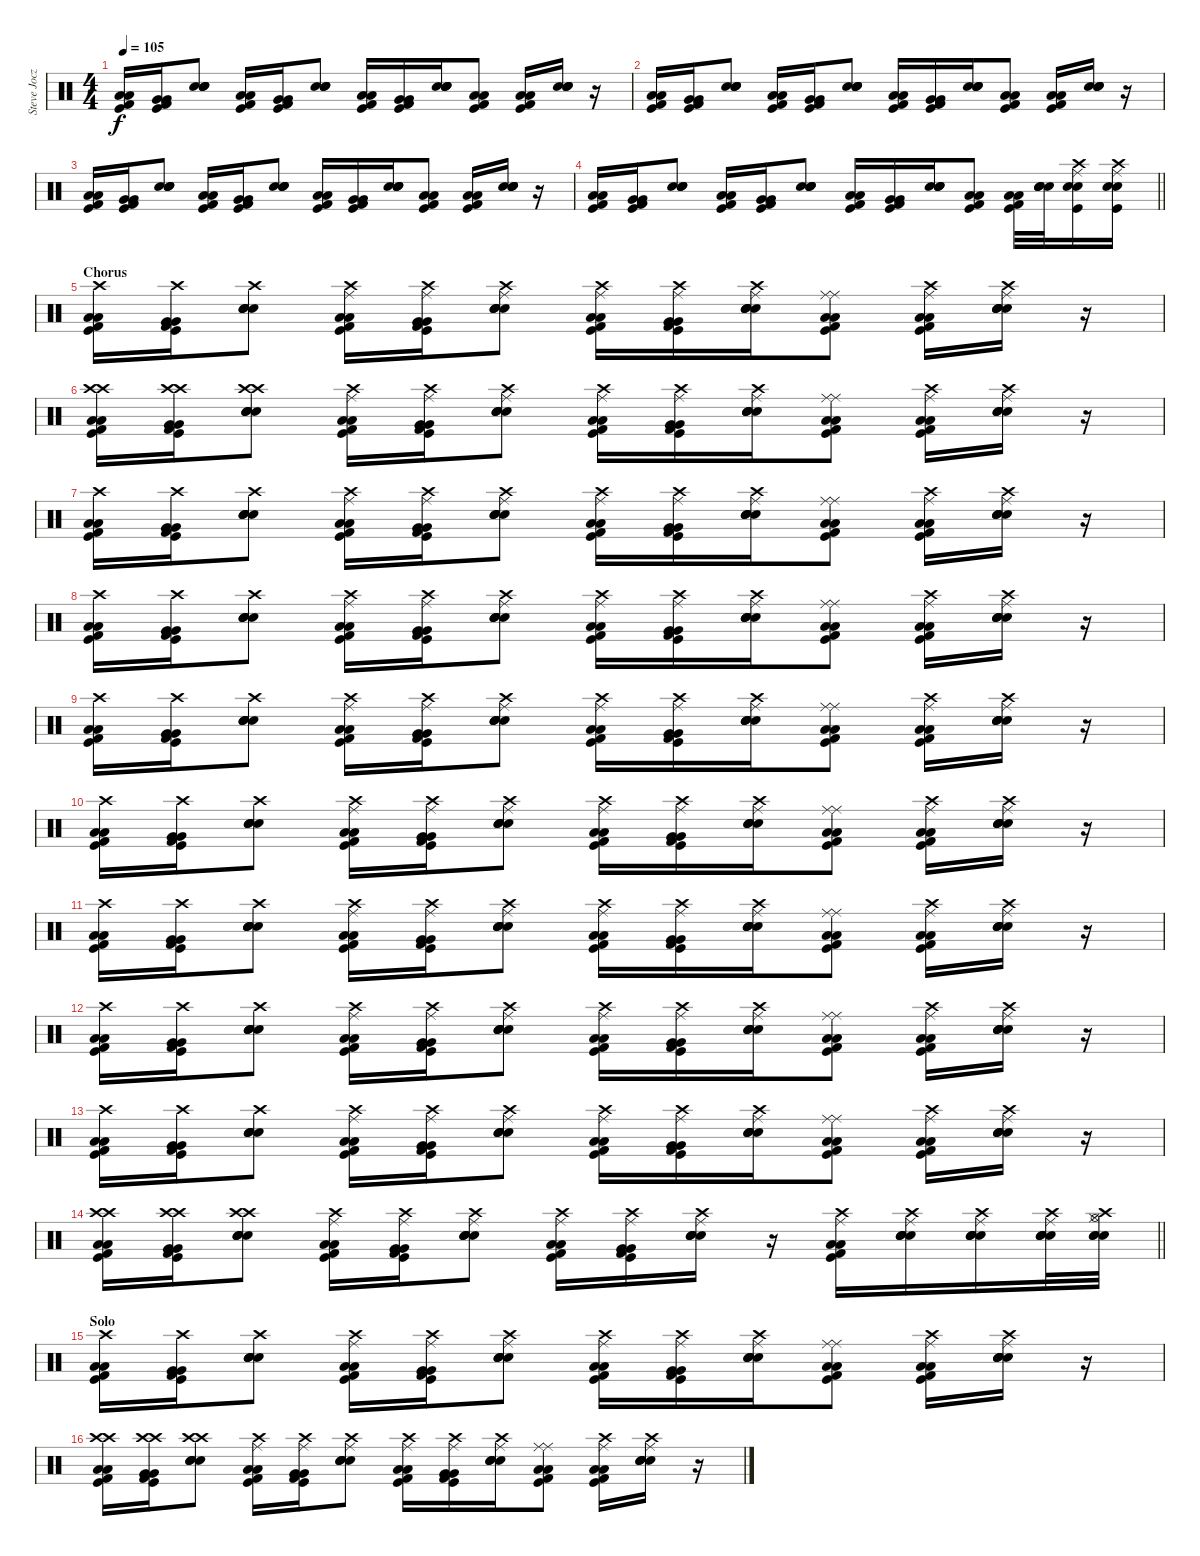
\track ("Steve Jocz" "Steve Jocz") {instrument percussion}
\staff {score}
\articulation defaults
\ts (4 4)
\tempo 105
\clef neutral
\ks c
("Low Floor Tom (hit)" "Low Floor Tom (hit)" "Kick (hit)" "Kick (hit) 2").16{dy f} ("Very Low Tom (hit)" "Very Low Tom (hit)" "Kick (hit)" "Kick (hit) 2").16 ("Snare (hit) 2" "Snare (hit) 2" "Electric Snare (hit)" "Electric Snare (hit)").8 ("Low Floor Tom (hit)" "Low Floor Tom (hit)" "Kick (hit)" "Kick (hit) 2").16 ("Very Low Tom (hit)" "Very Low Tom (hit)" "Kick (hit)" "Kick (hit) 2").16 ("Snare (hit) 2" "Snare (hit) 2" "Electric Snare (hit)" "Electric Snare (hit)").8 ("Low Floor Tom (hit)" "Low Floor Tom (hit)" "Kick (hit)" "Kick (hit) 2").16 ("Very Low Tom (hit)" "Very Low Tom (hit)" "Kick (hit)" "Kick (hit) 2").16 ("Snare (hit) 2" "Snare (hit) 2" "Electric Snare (hit)" "Electric Snare (hit)").16 ("Low Floor Tom (hit)" "Low Floor Tom (hit)" "Kick (hit)" "Kick (hit) 2").8 ("Low Floor Tom (hit)" "Low Floor Tom (hit)" "Kick (hit)" "Kick (hit) 2").16 ("Snare (hit) 2" "Snare (hit) 2" "Electric Snare (hit)" "Electric Snare (hit)").16 r.16 |
("Low Floor Tom (hit)" "Low Floor Tom (hit)" "Kick (hit)" "Kick (hit) 2").16 ("Very Low Tom (hit)" "Very Low Tom (hit)" "Kick (hit)" "Kick (hit) 2").16 ("Snare (hit) 2" "Snare (hit) 2" "Electric Snare (hit)" "Electric Snare (hit)").8 ("Low Floor Tom (hit)" "Low Floor Tom (hit)" "Kick (hit)" "Kick (hit) 2").16 ("Very Low Tom (hit)" "Very Low Tom (hit)" "Kick (hit)" "Kick (hit) 2").16 ("Snare (hit) 2" "Snare (hit) 2" "Electric Snare (hit)" "Electric Snare (hit)").8 ("Low Floor Tom (hit)" "Low Floor Tom (hit)" "Kick (hit)" "Kick (hit) 2").16 ("Very Low Tom (hit)" "Very Low Tom (hit)" "Kick (hit)" "Kick (hit) 2").16 ("Snare (hit) 2" "Snare (hit) 2" "Electric Snare (hit)" "Electric Snare (hit)").16 ("Low Floor Tom (hit)" "Low Floor Tom (hit)" "Kick (hit)" "Kick (hit) 2").8 ("Low Floor Tom (hit)" "Low Floor Tom (hit)" "Kick (hit)" "Kick (hit) 2").16 ("Snare (hit) 2" "Snare (hit) 2" "Electric Snare (hit)" "Electric Snare (hit)").16 r.16 |
("Low Floor Tom (hit)" "Low Floor Tom (hit)" "Kick (hit)" "Kick (hit) 2").16 ("Very Low Tom (hit)" "Very Low Tom (hit)" "Kick (hit)" "Kick (hit) 2").16 ("Snare (hit) 2" "Snare (hit) 2" "Electric Snare (hit)" "Electric Snare (hit)").8 ("Low Floor Tom (hit)" "Low Floor Tom (hit)" "Kick (hit)" "Kick (hit) 2").16 ("Very Low Tom (hit)" "Very Low Tom (hit)" "Kick (hit)" "Kick (hit) 2").16 ("Snare (hit) 2" "Snare (hit) 2" "Electric Snare (hit)" "Electric Snare (hit)").8 ("Low Floor Tom (hit)" "Low Floor Tom (hit)" "Kick (hit)" "Kick (hit) 2").16 ("Very Low Tom (hit)" "Very Low Tom (hit)" "Kick (hit)" "Kick (hit) 2").16 ("Snare (hit) 2" "Snare (hit) 2" "Electric Snare (hit)" "Electric Snare (hit)").16 ("Low Floor Tom (hit)" "Low Floor Tom (hit)" "Kick (hit)" "Kick (hit) 2").8 ("Low Floor Tom (hit)" "Low Floor Tom (hit)" "Kick (hit)" "Kick (hit) 2").16 ("Snare (hit) 2" "Snare (hit) 2" "Electric Snare (hit)" "Electric Snare (hit)").16 r.16 |
\barLineRight lightlight
("Low Floor Tom (hit)" "Low Floor Tom (hit)" "Kick (hit)" "Kick (hit) 2").16 ("Very Low Tom (hit)" "Very Low Tom (hit)" "Kick (hit)" "Kick (hit) 2").16 ("Snare (hit) 2" "Snare (hit) 2" "Electric Snare (hit)" "Electric Snare (hit)").8 ("Low Floor Tom (hit)" "Low Floor Tom (hit)" "Kick (hit)" "Kick (hit) 2").16 ("Very Low Tom (hit)" "Very Low Tom (hit)" "Kick (hit)" "Kick (hit) 2").16 ("Snare (hit) 2" "Snare (hit) 2" "Electric Snare (hit)" "Electric Snare (hit)").8 ("Low Floor Tom (hit)" "Low Floor Tom (hit)" "Kick (hit)" "Kick (hit) 2").16 ("Very Low Tom (hit)" "Very Low Tom (hit)" "Kick (hit)" "Kick (hit) 2").16 ("Snare (hit) 2" "Snare (hit) 2" "Electric Snare (hit)" "Electric Snare (hit)").16 ("Low Floor Tom (hit)" "Low Floor Tom (hit)" "Kick (hit)" "Kick (hit) 2").8 ("Low Floor Tom (hit)" "Low Floor Tom (hit)" "Kick (hit)" "Kick (hit) 2").32 ("Snare (hit) 2" "Snare (hit) 2" "Electric Snare (hit)" "Electric Snare (hit)").32 ("Snare (hit) 2" "Kick (hit)" "Electric Snare (hit)" "Crash high (hit)" "Ride (middle)").16 ("Snare (hit) 2" "Kick (hit)" "Electric Snare (hit)" "Crash high (hit)" "Ride (middle)").16 |
\section ("" "Chorus")
("Low Floor Tom (hit)" "Crash high (hit)" "Low Floor Tom (hit)" "Kick (hit)" "Kick (hit) 2").16 ("Very Low Tom (hit)" "Crash high (hit)" "Very Low Tom (hit)" "Kick (hit)" "Kick (hit) 2").16 ("Snare (hit) 2" "Crash high (hit)" "Snare (hit) 2" "Electric Snare (hit)" "Electric Snare (hit)").8 ("Low Floor Tom (hit)" "Ride (middle)" "Low Floor Tom (hit)" "Kick (hit)" "Crash high (hit)" "Kick (hit) 2").16 ("Very Low Tom (hit)" "Ride (middle)" "Very Low Tom (hit)" "Kick (hit)" "Crash high (hit)" "Kick (hit) 2").16 ("Snare (hit) 2" "Ride (middle)" "Snare (hit) 2" "Electric Snare (hit)" "Crash high (hit)" "Electric Snare (hit)").8 ("Low Floor Tom (hit)" "Ride (middle)" "Low Floor Tom (hit)" "Kick (hit)" "Crash high (hit)" "Kick (hit) 2").16 ("Very Low Tom (hit)" "Ride (middle)" "Very Low Tom (hit)" "Kick (hit)" "Crash high (hit)" "Kick (hit) 2").16 ("Snare (hit) 2" "Ride (middle)" "Snare (hit) 2" "Electric Snare (hit)" "Crash high (hit)" "Electric Snare (hit)").16 ("Low Floor Tom (hit)" "Ride (middle)" "Low Floor Tom (hit)" "Kick (hit)" "Ride (middle)" "Kick (hit) 2").8 ("Low Floor Tom (hit)" "Ride (middle)" "Low Floor Tom (hit)" "Kick (hit)" "Crash high (hit)" "Kick (hit) 2").16 ("Snare (hit) 2" "Ride (middle)" "Snare (hit) 2" "Electric Snare (hit)" "Crash high (hit)" "Electric Snare (hit)").16 r.16 |
("Low Floor Tom (hit)" "Crash high (hit)" "Low Floor Tom (hit)" "Kick (hit)" "Crash high (hit)" "Kick (hit) 2").16 ("Very Low Tom (hit)" "Crash high (hit)" "Very Low Tom (hit)" "Kick (hit)" "Crash high (hit)" "Kick (hit) 2").16 ("Snare (hit) 2" "Crash high (hit)" "Snare (hit) 2" "Electric Snare (hit)" "Crash high (hit)" "Electric Snare (hit)").8 ("Low Floor Tom (hit)" "Ride (middle)" "Low Floor Tom (hit)" "Kick (hit)" "Crash high (hit)" "Kick (hit) 2").16 ("Very Low Tom (hit)" "Ride (middle)" "Very Low Tom (hit)" "Kick (hit)" "Crash high (hit)" "Kick (hit) 2").16 ("Snare (hit) 2" "Ride (middle)" "Snare (hit) 2" "Electric Snare (hit)" "Crash high (hit)" "Electric Snare (hit)").8 ("Low Floor Tom (hit)" "Ride (middle)" "Low Floor Tom (hit)" "Kick (hit)" "Crash high (hit)" "Kick (hit) 2").16 ("Very Low Tom (hit)" "Ride (middle)" "Very Low Tom (hit)" "Kick (hit)" "Crash high (hit)" "Kick (hit) 2").16 ("Snare (hit) 2" "Ride (middle)" "Snare (hit) 2" "Electric Snare (hit)" "Crash high (hit)" "Electric Snare (hit)").16 ("Low Floor Tom (hit)" "Ride (middle)" "Low Floor Tom (hit)" "Kick (hit)" "Ride (middle)" "Kick (hit) 2").8 ("Low Floor Tom (hit)" "Ride (middle)" "Low Floor Tom (hit)" "Kick (hit)" "Crash high (hit)" "Kick (hit) 2").16 ("Snare (hit) 2" "Ride (middle)" "Snare (hit) 2" "Electric Snare (hit)" "Crash high (hit)" "Electric Snare (hit)").16 r.16 |
("Low Floor Tom (hit)" "Crash high (hit)" "Low Floor Tom (hit)" "Kick (hit)" "Kick (hit) 2").16 ("Very Low Tom (hit)" "Crash high (hit)" "Very Low Tom (hit)" "Kick (hit)" "Kick (hit) 2").16 ("Snare (hit) 2" "Crash high (hit)" "Snare (hit) 2" "Electric Snare (hit)" "Electric Snare (hit)").8 ("Low Floor Tom (hit)" "Ride (middle)" "Low Floor Tom (hit)" "Kick (hit)" "Crash high (hit)" "Kick (hit) 2").16 ("Very Low Tom (hit)" "Ride (middle)" "Very Low Tom (hit)" "Kick (hit)" "Crash high (hit)" "Kick (hit) 2").16 ("Snare (hit) 2" "Ride (middle)" "Snare (hit) 2" "Electric Snare (hit)" "Crash high (hit)" "Electric Snare (hit)").8 ("Low Floor Tom (hit)" "Ride (middle)" "Low Floor Tom (hit)" "Kick (hit)" "Crash high (hit)" "Kick (hit) 2").16 ("Very Low Tom (hit)" "Ride (middle)" "Very Low Tom (hit)" "Kick (hit)" "Crash high (hit)" "Kick (hit) 2").16 ("Snare (hit) 2" "Ride (middle)" "Snare (hit) 2" "Electric Snare (hit)" "Crash high (hit)" "Electric Snare (hit)").16 ("Low Floor Tom (hit)" "Ride (middle)" "Low Floor Tom (hit)" "Kick (hit)" "Ride (middle)" "Kick (hit) 2").8 ("Low Floor Tom (hit)" "Ride (middle)" "Low Floor Tom (hit)" "Kick (hit)" "Crash high (hit)" "Kick (hit) 2").16 ("Snare (hit) 2" "Ride (middle)" "Snare (hit) 2" "Electric Snare (hit)" "Crash high (hit)" "Electric Snare (hit)").16 r.16 |
("Low Floor Tom (hit)" "Crash high (hit)" "Low Floor Tom (hit)" "Kick (hit)" "Kick (hit) 2").16 ("Very Low Tom (hit)" "Crash high (hit)" "Very Low Tom (hit)" "Kick (hit)" "Kick (hit) 2").16 ("Snare (hit) 2" "Crash high (hit)" "Snare (hit) 2" "Electric Snare (hit)" "Electric Snare (hit)").8 ("Low Floor Tom (hit)" "Ride (middle)" "Low Floor Tom (hit)" "Kick (hit)" "Crash high (hit)" "Kick (hit) 2").16 ("Very Low Tom (hit)" "Ride (middle)" "Very Low Tom (hit)" "Kick (hit)" "Crash high (hit)" "Kick (hit) 2").16 ("Snare (hit) 2" "Ride (middle)" "Snare (hit) 2" "Electric Snare (hit)" "Crash high (hit)" "Electric Snare (hit)").8 ("Low Floor Tom (hit)" "Ride (middle)" "Low Floor Tom (hit)" "Kick (hit)" "Crash high (hit)" "Kick (hit) 2").16 ("Very Low Tom (hit)" "Ride (middle)" "Very Low Tom (hit)" "Kick (hit)" "Crash high (hit)" "Kick (hit) 2").16 ("Snare (hit) 2" "Ride (middle)" "Snare (hit) 2" "Electric Snare (hit)" "Crash high (hit)" "Electric Snare (hit)").16 ("Low Floor Tom (hit)" "Ride (middle)" "Low Floor Tom (hit)" "Kick (hit)" "Ride (middle)" "Kick (hit) 2").8 ("Low Floor Tom (hit)" "Ride (middle)" "Low Floor Tom (hit)" "Kick (hit)" "Crash high (hit)" "Kick (hit) 2").16 ("Snare (hit) 2" "Ride (middle)" "Snare (hit) 2" "Electric Snare (hit)" "Crash high (hit)" "Electric Snare (hit)").16 r.16 |
("Low Floor Tom (hit)" "Crash high (hit)" "Low Floor Tom (hit)" "Kick (hit)" "Kick (hit) 2").16 ("Very Low Tom (hit)" "Crash high (hit)" "Very Low Tom (hit)" "Kick (hit)" "Kick (hit) 2").16 ("Snare (hit) 2" "Crash high (hit)" "Snare (hit) 2" "Electric Snare (hit)" "Electric Snare (hit)").8 ("Low Floor Tom (hit)" "Ride (middle)" "Low Floor Tom (hit)" "Kick (hit)" "Crash high (hit)" "Kick (hit) 2").16 ("Very Low Tom (hit)" "Ride (middle)" "Very Low Tom (hit)" "Kick (hit)" "Crash high (hit)" "Kick (hit) 2").16 ("Snare (hit) 2" "Ride (middle)" "Snare (hit) 2" "Electric Snare (hit)" "Crash high (hit)" "Electric Snare (hit)").8 ("Low Floor Tom (hit)" "Ride (middle)" "Low Floor Tom (hit)" "Kick (hit)" "Crash high (hit)" "Kick (hit) 2").16 ("Very Low Tom (hit)" "Ride (middle)" "Very Low Tom (hit)" "Kick (hit)" "Crash high (hit)" "Kick (hit) 2").16 ("Snare (hit) 2" "Ride (middle)" "Snare (hit) 2" "Electric Snare (hit)" "Crash high (hit)" "Electric Snare (hit)").16 ("Low Floor Tom (hit)" "Ride (middle)" "Low Floor Tom (hit)" "Kick (hit)" "Ride (middle)" "Kick (hit) 2").8 ("Low Floor Tom (hit)" "Ride (middle)" "Low Floor Tom (hit)" "Kick (hit)" "Crash high (hit)" "Kick (hit) 2").16 ("Snare (hit) 2" "Ride (middle)" "Snare (hit) 2" "Electric Snare (hit)" "Crash high (hit)" "Electric Snare (hit)").16 r.16 |
("Low Floor Tom (hit)" "Crash high (hit)" "Low Floor Tom (hit)" "Kick (hit)" "Kick (hit) 2").16 ("Very Low Tom (hit)" "Crash high (hit)" "Very Low Tom (hit)" "Kick (hit)" "Kick (hit) 2").16 ("Snare (hit) 2" "Crash high (hit)" "Snare (hit) 2" "Electric Snare (hit)" "Electric Snare (hit)").8 ("Low Floor Tom (hit)" "Ride (middle)" "Low Floor Tom (hit)" "Kick (hit)" "Crash high (hit)" "Kick (hit) 2").16 ("Very Low Tom (hit)" "Ride (middle)" "Very Low Tom (hit)" "Kick (hit)" "Crash high (hit)" "Kick (hit) 2").16 ("Snare (hit) 2" "Ride (middle)" "Snare (hit) 2" "Electric Snare (hit)" "Crash high (hit)" "Electric Snare (hit)").8 ("Low Floor Tom (hit)" "Ride (middle)" "Low Floor Tom (hit)" "Kick (hit)" "Crash high (hit)" "Kick (hit) 2").16 ("Very Low Tom (hit)" "Ride (middle)" "Very Low Tom (hit)" "Kick (hit)" "Crash high (hit)" "Kick (hit) 2").16 ("Snare (hit) 2" "Ride (middle)" "Snare (hit) 2" "Electric Snare (hit)" "Crash high (hit)" "Electric Snare (hit)").16 ("Low Floor Tom (hit)" "Ride (middle)" "Low Floor Tom (hit)" "Kick (hit)" "Ride (middle)" "Kick (hit) 2").8 ("Low Floor Tom (hit)" "Ride (middle)" "Low Floor Tom (hit)" "Kick (hit)" "Crash high (hit)" "Kick (hit) 2").16 ("Snare (hit) 2" "Ride (middle)" "Snare (hit) 2" "Electric Snare (hit)" "Crash high (hit)" "Electric Snare (hit)").16 r.16 |
("Low Floor Tom (hit)" "Crash high (hit)" "Low Floor Tom (hit)" "Kick (hit)" "Kick (hit) 2").16 ("Very Low Tom (hit)" "Crash high (hit)" "Very Low Tom (hit)" "Kick (hit)" "Kick (hit) 2").16 ("Snare (hit) 2" "Crash high (hit)" "Snare (hit) 2" "Electric Snare (hit)" "Electric Snare (hit)").8 ("Low Floor Tom (hit)" "Ride (middle)" "Low Floor Tom (hit)" "Kick (hit)" "Crash high (hit)" "Kick (hit) 2").16 ("Very Low Tom (hit)" "Ride (middle)" "Very Low Tom (hit)" "Kick (hit)" "Crash high (hit)" "Kick (hit) 2").16 ("Snare (hit) 2" "Ride (middle)" "Snare (hit) 2" "Electric Snare (hit)" "Crash high (hit)" "Electric Snare (hit)").8 ("Low Floor Tom (hit)" "Ride (middle)" "Low Floor Tom (hit)" "Kick (hit)" "Crash high (hit)" "Kick (hit) 2").16 ("Very Low Tom (hit)" "Ride (middle)" "Very Low Tom (hit)" "Kick (hit)" "Crash high (hit)" "Kick (hit) 2").16 ("Snare (hit) 2" "Ride (middle)" "Snare (hit) 2" "Electric Snare (hit)" "Crash high (hit)" "Electric Snare (hit)").16 ("Low Floor Tom (hit)" "Ride (middle)" "Low Floor Tom (hit)" "Kick (hit)" "Ride (middle)" "Kick (hit) 2").8 ("Low Floor Tom (hit)" "Ride (middle)" "Low Floor Tom (hit)" "Kick (hit)" "Crash high (hit)" "Kick (hit) 2").16 ("Snare (hit) 2" "Ride (middle)" "Snare (hit) 2" "Electric Snare (hit)" "Crash high (hit)" "Electric Snare (hit)").16 r.16 |
("Low Floor Tom (hit)" "Crash high (hit)" "Low Floor Tom (hit)" "Kick (hit)" "Kick (hit) 2").16 ("Very Low Tom (hit)" "Crash high (hit)" "Very Low Tom (hit)" "Kick (hit)" "Kick (hit) 2").16 ("Snare (hit) 2" "Crash high (hit)" "Snare (hit) 2" "Electric Snare (hit)" "Electric Snare (hit)").8 ("Low Floor Tom (hit)" "Ride (middle)" "Low Floor Tom (hit)" "Kick (hit)" "Crash high (hit)" "Kick (hit) 2").16 ("Very Low Tom (hit)" "Ride (middle)" "Very Low Tom (hit)" "Kick (hit)" "Crash high (hit)" "Kick (hit) 2").16 ("Snare (hit) 2" "Ride (middle)" "Snare (hit) 2" "Electric Snare (hit)" "Crash high (hit)" "Electric Snare (hit)").8 ("Low Floor Tom (hit)" "Ride (middle)" "Low Floor Tom (hit)" "Kick (hit)" "Crash high (hit)" "Kick (hit) 2").16 ("Very Low Tom (hit)" "Ride (middle)" "Very Low Tom (hit)" "Kick (hit)" "Crash high (hit)" "Kick (hit) 2").16 ("Snare (hit) 2" "Ride (middle)" "Snare (hit) 2" "Electric Snare (hit)" "Crash high (hit)" "Electric Snare (hit)").16 ("Low Floor Tom (hit)" "Ride (middle)" "Low Floor Tom (hit)" "Kick (hit)" "Ride (middle)" "Kick (hit) 2").8 ("Low Floor Tom (hit)" "Ride (middle)" "Low Floor Tom (hit)" "Kick (hit)" "Crash high (hit)" "Kick (hit) 2").16 ("Snare (hit) 2" "Ride (middle)" "Snare (hit) 2" "Electric Snare (hit)" "Crash high (hit)" "Electric Snare (hit)").16 r.16 |
("Low Floor Tom (hit)" "Crash high (hit)" "Low Floor Tom (hit)" "Kick (hit)" "Kick (hit) 2").16 ("Very Low Tom (hit)" "Crash high (hit)" "Very Low Tom (hit)" "Kick (hit)" "Kick (hit) 2").16 ("Snare (hit) 2" "Crash high (hit)" "Snare (hit) 2" "Electric Snare (hit)" "Electric Snare (hit)").8 ("Low Floor Tom (hit)" "Ride (middle)" "Low Floor Tom (hit)" "Kick (hit)" "Crash high (hit)" "Kick (hit) 2").16 ("Very Low Tom (hit)" "Ride (middle)" "Very Low Tom (hit)" "Kick (hit)" "Crash high (hit)" "Kick (hit) 2").16 ("Snare (hit) 2" "Ride (middle)" "Snare (hit) 2" "Electric Snare (hit)" "Crash high (hit)" "Electric Snare (hit)").8 ("Low Floor Tom (hit)" "Ride (middle)" "Low Floor Tom (hit)" "Kick (hit)" "Crash high (hit)" "Kick (hit) 2").16 ("Very Low Tom (hit)" "Ride (middle)" "Very Low Tom (hit)" "Kick (hit)" "Crash high (hit)" "Kick (hit) 2").16 ("Snare (hit) 2" "Ride (middle)" "Snare (hit) 2" "Electric Snare (hit)" "Crash high (hit)" "Electric Snare (hit)").16 ("Low Floor Tom (hit)" "Ride (middle)" "Low Floor Tom (hit)" "Kick (hit)" "Ride (middle)" "Kick (hit) 2").8 ("Low Floor Tom (hit)" "Ride (middle)" "Low Floor Tom (hit)" "Kick (hit)" "Crash high (hit)" "Kick (hit) 2").16 ("Snare (hit) 2" "Ride (middle)" "Snare (hit) 2" "Electric Snare (hit)" "Crash high (hit)" "Electric Snare (hit)").16 r.16 |
\barLineRight lightlight
("Low Floor Tom (hit)" "Crash high (hit)" "Low Floor Tom (hit)" "Kick (hit)" "Crash high (hit)" "Kick (hit) 2").16 ("Very Low Tom (hit)" "Crash high (hit)" "Very Low Tom (hit)" "Kick (hit)" "Crash high (hit)" "Kick (hit) 2").16 ("Snare (hit) 2" "Crash high (hit)" "Snare (hit) 2" "Electric Snare (hit)" "Crash high (hit)" "Electric Snare (hit)").8 ("Low Floor Tom (hit)" "Ride (middle)" "Low Floor Tom (hit)" "Kick (hit)" "Crash high (hit)" "Kick (hit) 2").16 ("Very Low Tom (hit)" "Ride (middle)" "Very Low Tom (hit)" "Kick (hit)" "Crash high (hit)" "Kick (hit) 2").16 ("Snare (hit) 2" "Ride (middle)" "Snare (hit) 2" "Electric Snare (hit)" "Crash high (hit)" "Electric Snare (hit)").8 ("Low Floor Tom (hit)" "Ride (middle)" "Low Floor Tom (hit)" "Kick (hit)" "Crash high (hit)" "Kick (hit) 2").16 ("Very Low Tom (hit)" "Ride (middle)" "Very Low Tom (hit)" "Kick (hit)" "Crash high (hit)" "Kick (hit) 2").16 ("Snare (hit) 2" "Ride (middle)" "Snare (hit) 2" "Electric Snare (hit)" "Crash high (hit)" "Electric Snare (hit)").16 r.16 ("Low Floor Tom (hit)" "Ride (middle)" "Low Floor Tom (hit)" "Kick (hit)" "Crash high (hit)" "Kick (hit) 2").16 ("Snare (hit) 2" "Ride (middle)" "Snare (hit) 2" "Electric Snare (hit)" "Crash high (hit)" "Electric Snare (hit)").16 ("Snare (hit) 2" "Ride (middle)" "Snare (hit) 2" "Electric Snare (hit)" "Crash high (hit)" "Electric Snare (hit)").16 ("Snare (hit) 2" "Ride (middle)" "Snare (hit) 2" "Electric Snare (hit)" "Crash high (hit)" "Electric Snare (hit)").32 ("Snare (hit) 2" "Snare (hit) 2" "Electric Snare (hit)" "Crash high (hit)" "Hi-Hat (open)" "Hi-Hat (closed)").32 |
\section ("" "Solo ")
("Low Floor Tom (hit)" "Crash high (hit)" "Low Floor Tom (hit)" "Kick (hit)" "Kick (hit) 2").16 ("Very Low Tom (hit)" "Crash high (hit)" "Very Low Tom (hit)" "Kick (hit)" "Kick (hit) 2").16 ("Snare (hit) 2" "Crash high (hit)" "Snare (hit) 2" "Electric Snare (hit)" "Electric Snare (hit)").8 ("Low Floor Tom (hit)" "Ride (middle)" "Low Floor Tom (hit)" "Kick (hit)" "Crash high (hit)" "Kick (hit) 2").16 ("Very Low Tom (hit)" "Ride (middle)" "Very Low Tom (hit)" "Kick (hit)" "Crash high (hit)" "Kick (hit) 2").16 ("Snare (hit) 2" "Ride (middle)" "Snare (hit) 2" "Electric Snare (hit)" "Crash high (hit)" "Electric Snare (hit)").8 ("Low Floor Tom (hit)" "Ride (middle)" "Low Floor Tom (hit)" "Kick (hit)" "Crash high (hit)" "Kick (hit) 2").16 ("Very Low Tom (hit)" "Ride (middle)" "Very Low Tom (hit)" "Kick (hit)" "Crash high (hit)" "Kick (hit) 2").16 ("Snare (hit) 2" "Ride (middle)" "Snare (hit) 2" "Electric Snare (hit)" "Crash high (hit)" "Electric Snare (hit)").16 ("Low Floor Tom (hit)" "Ride (middle)" "Low Floor Tom (hit)" "Kick (hit)" "Ride (middle)" "Kick (hit) 2").8 ("Low Floor Tom (hit)" "Ride (middle)" "Low Floor Tom (hit)" "Kick (hit)" "Crash high (hit)" "Kick (hit) 2").16 ("Snare (hit) 2" "Ride (middle)" "Snare (hit) 2" "Electric Snare (hit)" "Crash high (hit)" "Electric Snare (hit)").16 r.16 |
("Low Floor Tom (hit)" "Crash high (hit)" "Low Floor Tom (hit)" "Kick (hit)" "Crash high (hit)" "Kick (hit) 2").16 ("Very Low Tom (hit)" "Crash high (hit)" "Very Low Tom (hit)" "Kick (hit)" "Crash high (hit)" "Kick (hit) 2").16 ("Snare (hit) 2" "Crash high (hit)" "Snare (hit) 2" "Electric Snare (hit)" "Crash high (hit)" "Electric Snare (hit)").8 ("Low Floor Tom (hit)" "Ride (middle)" "Low Floor Tom (hit)" "Kick (hit)" "Crash high (hit)" "Kick (hit) 2").16 ("Very Low Tom (hit)" "Ride (middle)" "Very Low Tom (hit)" "Kick (hit)" "Crash high (hit)" "Kick (hit) 2").16 ("Snare (hit) 2" "Ride (middle)" "Snare (hit) 2" "Electric Snare (hit)" "Crash high (hit)" "Electric Snare (hit)").8 ("Low Floor Tom (hit)" "Ride (middle)" "Low Floor Tom (hit)" "Kick (hit)" "Crash high (hit)" "Kick (hit) 2").16 ("Very Low Tom (hit)" "Ride (middle)" "Very Low Tom (hit)" "Kick (hit)" "Crash high (hit)" "Kick (hit) 2").16 ("Snare (hit) 2" "Ride (middle)" "Snare (hit) 2" "Electric Snare (hit)" "Crash high (hit)" "Electric Snare (hit)").16 ("Low Floor Tom (hit)" "Ride (middle)" "Low Floor Tom (hit)" "Kick (hit)" "Ride (middle)" "Kick (hit) 2").8 ("Low Floor Tom (hit)" "Ride (middle)" "Low Floor Tom (hit)" "Kick (hit)" "Crash high (hit)" "Kick (hit) 2").16 ("Snare (hit) 2" "Ride (middle)" "Snare (hit) 2" "Electric Snare (hit)" "Crash high (hit)" "Electric Snare (hit)").16 r.16
